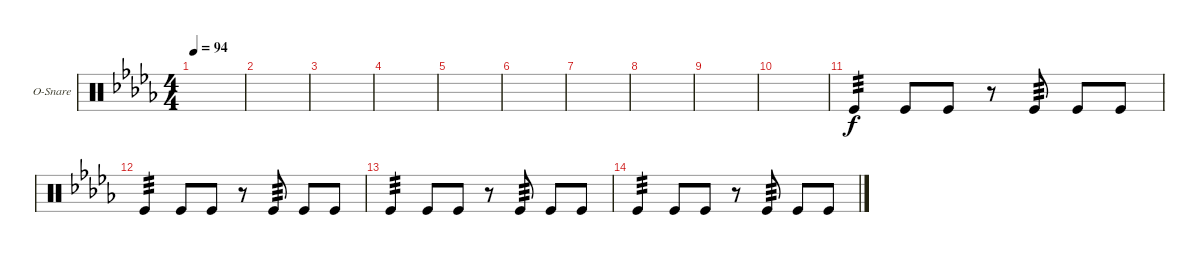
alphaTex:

\bracketExtendMode groupsimilarinstruments
\firstSystemTrackNameOrientation horizontal
\otherSystemsTrackNameOrientation horizontal
\track ("Snare" "O-Snare") {instrument percussion}
\staff {score}
\articulation defaults
\ts (4 4)
\tempo 94
\clef neutral
\scale
0.547619
\ks bbminor
|
\scale
0.22619 |
\scale
0.22619 |
\scale
0.333333 |
\scale
0.333333 |
\scale
0.333333 |
\scale
0.333333 |
\scale
0.333333 |
\scale
0.333333 |
\scale
0.333333 |
"Kick (hit)".4{tp 3} "Kick (hit)".8 "Kick (hit)".8 r.8 "Kick (hit)".8{tp 3} "Kick (hit)".8 "Kick (hit)".8 |
"Kick (hit)".4{tp 3} "Kick (hit)".8 "Kick (hit)".8 r.8 "Kick (hit)".8{tp 3} "Kick (hit)".8 "Kick (hit)".8 |
"Kick (hit)".4{tp 3} "Kick (hit)".8 "Kick (hit)".8 r.8 "Kick (hit)".8{tp 3} "Kick (hit)".8 "Kick (hit)".8 |
"Kick (hit)".4{tp 3} "Kick (hit)".8 "Kick (hit)".8 r.8 "Kick (hit)".8{tp 3} "Kick (hit)".8 "Kick (hit)".8 |
|
\scale
0.333333
